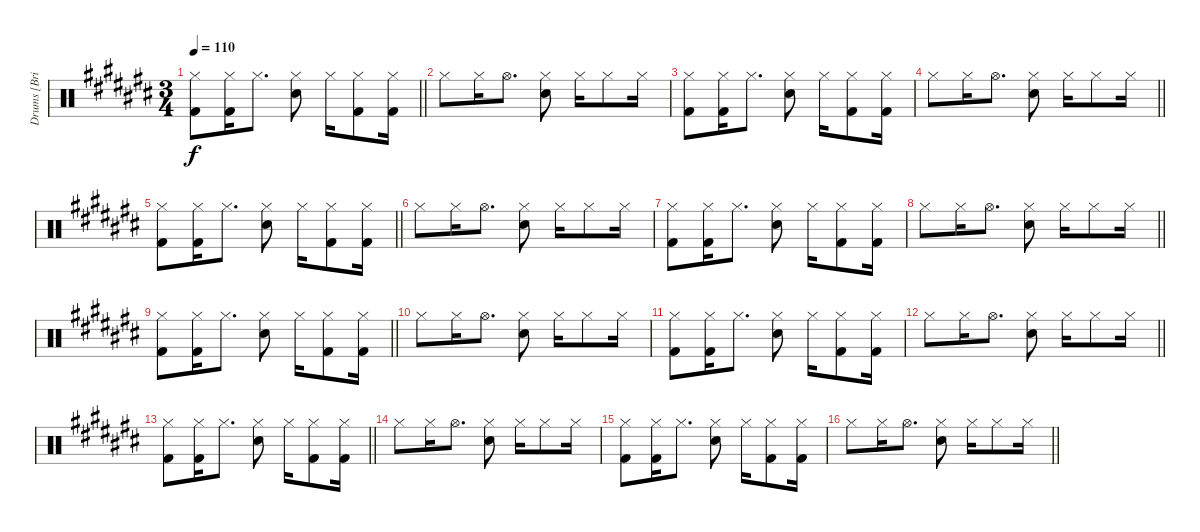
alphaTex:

\track ("Drums [Brian \"Brain\" Mantia]" "Drums [Bri") {instrument percussion}
\staff {score}
\articulation defaults
\ts (3 4)
\tempo 110
\clef neutral
\barLineRight lightlight
\ks c#
("Hi-Hat (closed)" "Kick (hit) 2").8{dy f} ("Hi-Hat (closed)" "Kick (hit) 2").16 "Hi-Hat (closed)".8{d} ("Hi-Hat (closed)" "Electric Snare (hit)").8 "Hi-Hat (closed)".16 ("Hi-Hat (closed)" "Kick (hit) 2").8 ("Hi-Hat (closed)" "Kick (hit) 2").16 |
"Hi-Hat (closed)".8 "Hi-Hat (closed)".16 "Hi-Hat (open)".8{d} ("Hi-Hat (closed)" "Electric Snare (hit)").8 "Hi-Hat (closed)".16 "Hi-Hat (closed)".8 "Hi-Hat (closed)".16 |
("Hi-Hat (closed)" "Kick (hit) 2").8 ("Hi-Hat (closed)" "Kick (hit) 2").16 "Hi-Hat (closed)".8{d} ("Hi-Hat (closed)" "Electric Snare (hit)").8 "Hi-Hat (closed)".16 ("Hi-Hat (closed)" "Kick (hit) 2").8 ("Hi-Hat (closed)" "Kick (hit) 2").16 |
\barLineRight lightlight "Hi-Hat (closed)".8 "Hi-Hat (closed)".16 "Hi-Hat (open)".8{d}
("Hi-Hat (closed)" "Electric Snare (hit)").8 "Hi-Hat (closed)".16 "Hi-Hat (closed)".8 "Hi-Hat (closed)".16 |
\barLineRight lightlight
("Hi-Hat (closed)" "Kick (hit) 2").8 ("Hi-Hat (closed)" "Kick (hit) 2").16 "Hi-Hat (closed)".8{d} ("Hi-Hat (closed)" "Electric Snare (hit)").8 "Hi-Hat (closed)".16 ("Hi-Hat (closed)" "Kick (hit) 2").8 ("Hi-Hat (closed)" "Kick (hit) 2").16 |
"Hi-Hat (closed)".8 "Hi-Hat (closed)".16 "Hi-Hat (open)".8{d} ("Hi-Hat (closed)" "Electric Snare (hit)").8 "Hi-Hat (closed)".16 "Hi-Hat (closed)".8 "Hi-Hat (closed)".16 |
("Hi-Hat (closed)" "Kick (hit) 2").8 ("Hi-Hat (closed)" "Kick (hit) 2").16 "Hi-Hat (closed)".8{d} ("Hi-Hat (closed)" "Electric Snare (hit)").8 "Hi-Hat (closed)".16 ("Hi-Hat (closed)" "Kick (hit) 2").8 ("Hi-Hat (closed)" "Kick (hit) 2").16 |
\barLineRight lightlight "Hi-Hat (closed)".8 "Hi-Hat (closed)".16 "Hi-Hat (open)".8{d}
("Hi-Hat (closed)" "Electric Snare (hit)").8 "Hi-Hat (closed)".16 "Hi-Hat (closed)".8 "Hi-Hat (closed)".16 |
\section ("" "")
\barLineRight lightlight
("Hi-Hat (closed)" "Kick (hit) 2").8 ("Hi-Hat (closed)" "Kick (hit) 2").16 "Hi-Hat (closed)".8{d} ("Hi-Hat (closed)" "Electric Snare (hit)").8 "Hi-Hat (closed)".16 ("Hi-Hat (closed)" "Kick (hit) 2").8 ("Hi-Hat (closed)" "Kick (hit) 2").16 |
"Hi-Hat (closed)".8 "Hi-Hat (closed)".16 "Hi-Hat (open)".8{d} ("Hi-Hat (closed)" "Electric Snare (hit)").8 "Hi-Hat (closed)".16 "Hi-Hat (closed)".8 "Hi-Hat (closed)".16 |
("Hi-Hat (closed)" "Kick (hit) 2").8 ("Hi-Hat (closed)" "Kick (hit) 2").16 "Hi-Hat (closed)".8{d} ("Hi-Hat (closed)" "Electric Snare (hit)").8 "Hi-Hat (closed)".16 ("Hi-Hat (closed)" "Kick (hit) 2").8 ("Hi-Hat (closed)" "Kick (hit) 2").16 |
\barLineRight lightlight "Hi-Hat (closed)".8 "Hi-Hat (closed)".16 "Hi-Hat (open)".8{d}
("Hi-Hat (closed)" "Electric Snare (hit)").8 "Hi-Hat (closed)".16 "Hi-Hat (closed)".8 "Hi-Hat (closed)".16 |
\barLineRight lightlight
("Hi-Hat (closed)" "Kick (hit) 2").8 ("Hi-Hat (closed)" "Kick (hit) 2").16 "Hi-Hat (closed)".8{d} ("Hi-Hat (closed)" "Electric Snare (hit)").8 "Hi-Hat (closed)".16 ("Hi-Hat (closed)" "Kick (hit) 2").8 ("Hi-Hat (closed)" "Kick (hit) 2").16 |
"Hi-Hat (closed)".8 "Hi-Hat (closed)".16 "Hi-Hat (open)".8{d} ("Hi-Hat (closed)" "Electric Snare (hit)").8 "Hi-Hat (closed)".16 "Hi-Hat (closed)".8 "Hi-Hat (closed)".16 |
("Hi-Hat (closed)" "Kick (hit) 2").8 ("Hi-Hat (closed)" "Kick (hit) 2").16 "Hi-Hat (closed)".8{d} ("Hi-Hat (closed)" "Electric Snare (hit)").8 "Hi-Hat (closed)".16 ("Hi-Hat (closed)" "Kick (hit) 2").8 ("Hi-Hat (closed)" "Kick (hit) 2").16 |
\barLineRight lightlight "Hi-Hat (closed)".8 "Hi-Hat (closed)".16 "Hi-Hat (open)".8{d}
("Hi-Hat (closed)" "Electric Snare (hit)").8 "Hi-Hat (closed)".16 "Hi-Hat (closed)".8 "Hi-Hat (closed)".16
